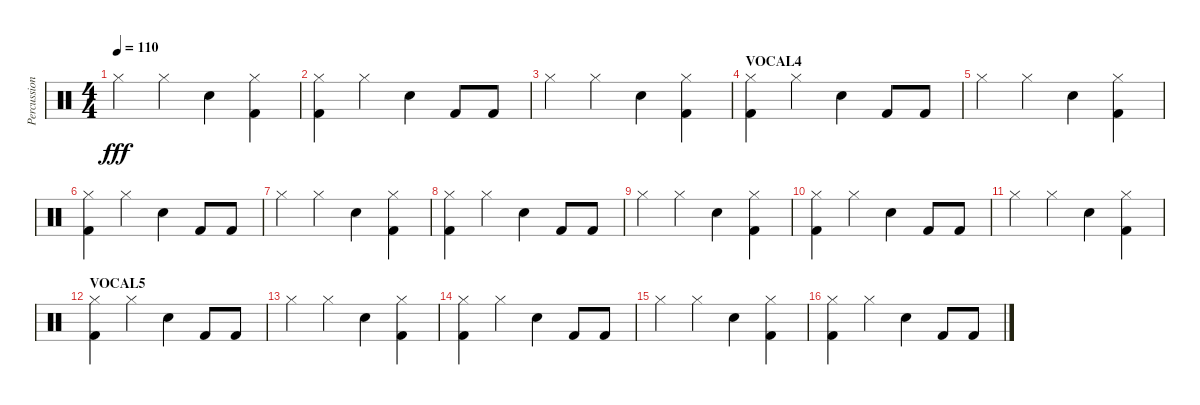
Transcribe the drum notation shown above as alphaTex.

\track ("Percussion" "Percussion") {instrument percussion}
\staff {score}
\articulation defaults
\ts (4 4)
\tempo 110
\clef neutral
\ks c "Hi-Hat (closed)".4{dy fff} "Hi-Hat (closed)".4 "Electric Snare (hit)".4
("Kick (hit) 2" "Hi-Hat (closed)").4 |
("Kick (hit) 2" "Hi-Hat (closed)").4 "Hi-Hat (closed)".4 "Electric Snare (hit)".4 "Kick (hit) 2".8 "Kick (hit) 2".8 |
"Hi-Hat (closed)".4 "Hi-Hat (closed)".4 "Electric Snare (hit)".4 ("Kick (hit) 2" "Hi-Hat (closed)").4 |
\section ("" "VOCAL4")
("Kick (hit) 2" "Hi-Hat (closed)").4 "Hi-Hat (closed)".4 "Electric Snare (hit)".4 "Kick (hit) 2".8 "Kick (hit) 2".8 |
"Hi-Hat (closed)".4 "Hi-Hat (closed)".4 "Electric Snare (hit)".4 ("Kick (hit) 2" "Hi-Hat (closed)").4 |
("Kick (hit) 2" "Hi-Hat (closed)").4 "Hi-Hat (closed)".4 "Electric Snare (hit)".4 "Kick (hit) 2".8 "Kick (hit) 2".8 |
"Hi-Hat (closed)".4 "Hi-Hat (closed)".4 "Electric Snare (hit)".4 ("Kick (hit) 2" "Hi-Hat (closed)").4 |
("Kick (hit) 2" "Hi-Hat (closed)").4 "Hi-Hat (closed)".4 "Electric Snare (hit)".4 "Kick (hit) 2".8 "Kick (hit) 2".8 |
"Hi-Hat (closed)".4 "Hi-Hat (closed)".4 "Electric Snare (hit)".4 ("Kick (hit) 2" "Hi-Hat (closed)").4 |
("Kick (hit) 2" "Hi-Hat (closed)").4 "Hi-Hat (closed)".4 "Electric Snare (hit)".4 "Kick (hit) 2".8 "Kick (hit) 2".8 |
"Hi-Hat (closed)".4 "Hi-Hat (closed)".4 "Electric Snare (hit)".4 ("Kick (hit) 2" "Hi-Hat (closed)").4 |
\section ("" "VOCAL5")
("Kick (hit) 2" "Hi-Hat (closed)").4 "Hi-Hat (closed)".4 "Electric Snare (hit)".4 "Kick (hit) 2".8 "Kick (hit) 2".8 |
"Hi-Hat (closed)".4 "Hi-Hat (closed)".4 "Electric Snare (hit)".4 ("Kick (hit) 2" "Hi-Hat (closed)").4 |
("Kick (hit) 2" "Hi-Hat (closed)").4 "Hi-Hat (closed)".4 "Electric Snare (hit)".4 "Kick (hit) 2".8 "Kick (hit) 2".8 |
"Hi-Hat (closed)".4 "Hi-Hat (closed)".4 "Electric Snare (hit)".4 ("Kick (hit) 2" "Hi-Hat (closed)").4 |
("Kick (hit) 2" "Hi-Hat (closed)").4 "Hi-Hat (closed)".4 "Electric Snare (hit)".4 "Kick (hit) 2".8 "Kick (hit) 2".8
